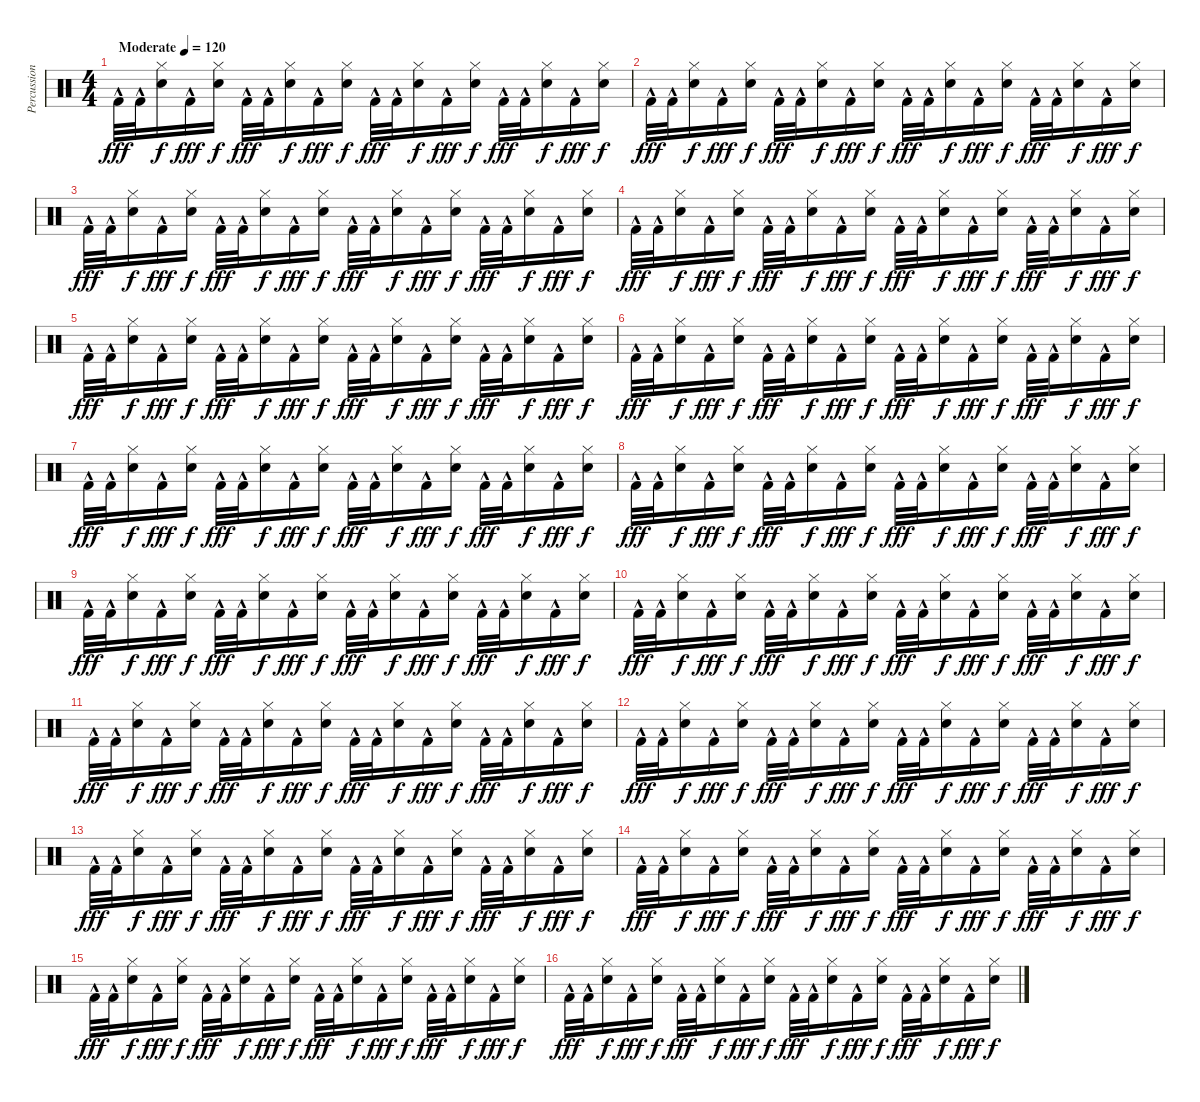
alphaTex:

\track ("Percussion" "Percussion") {instrument percussion}
\staff {score}
\articulation defaults
\ts (4 4)
\tempo (120 "Moderate")
\clef neutral
\ks c "Kick (hit) 2"{hac}.32{dy fff} "Kick (hit) 2"{hac}.32
("Hi-Hat (closed)" "Snare (hit) 2").16{dy f} "Kick (hit) 2"{hac}.16{dy fff} ("Hi-Hat (closed)" "Snare (hit) 2").16{dy f} "Kick (hit) 2"{hac}.32{dy fff} "Kick (hit) 2"{hac}.32 ("Hi-Hat (closed)" "Snare (hit) 2").16{dy f} "Kick (hit) 2"{hac}.16{dy fff} ("Hi-Hat (closed)" "Snare (hit) 2").16{dy f} "Kick (hit) 2"{hac}.32{dy fff} "Kick (hit) 2"{hac}.32 ("Hi-Hat (closed)" "Snare (hit) 2").16{dy f} "Kick (hit) 2"{hac}.16{dy fff} ("Hi-Hat (closed)" "Snare (hit) 2").16{dy f} "Kick (hit) 2"{hac}.32{dy fff} "Kick (hit) 2"{hac}.32 ("Hi-Hat (closed)" "Snare (hit) 2").16{dy f} "Kick (hit) 2"{hac}.16{dy fff} ("Hi-Hat (closed)" "Snare (hit) 2").16{dy f} |
"Kick (hit) 2"{hac}.32{dy fff} "Kick (hit) 2"{hac}.32 ("Hi-Hat (closed)" "Snare (hit) 2").16{dy f} "Kick (hit) 2"{hac}.16{dy fff} ("Hi-Hat (closed)" "Snare (hit) 2").16{dy f} "Kick (hit) 2"{hac}.32{dy fff} "Kick (hit) 2"{hac}.32 ("Hi-Hat (closed)" "Snare (hit) 2").16{dy f} "Kick (hit) 2"{hac}.16{dy fff} ("Hi-Hat (closed)" "Snare (hit) 2").16{dy f} "Kick (hit) 2"{hac}.32{dy fff} "Kick (hit) 2"{hac}.32 ("Hi-Hat (closed)" "Snare (hit) 2").16{dy f} "Kick (hit) 2"{hac}.16{dy fff} ("Hi-Hat (closed)" "Snare (hit) 2").16{dy f} "Kick (hit) 2"{hac}.32{dy fff} "Kick (hit) 2"{hac}.32 ("Hi-Hat (closed)" "Snare (hit) 2").16{dy f} "Kick (hit) 2"{hac}.16{dy fff} ("Hi-Hat (closed)" "Snare (hit) 2").16{dy f} |
"Kick (hit) 2"{hac}.32{dy fff} "Kick (hit) 2"{hac}.32 ("Hi-Hat (closed)" "Snare (hit) 2").16{dy f} "Kick (hit) 2"{hac}.16{dy fff} ("Hi-Hat (closed)" "Snare (hit) 2").16{dy f} "Kick (hit) 2"{hac}.32{dy fff} "Kick (hit) 2"{hac}.32 ("Hi-Hat (closed)" "Snare (hit) 2").16{dy f} "Kick (hit) 2"{hac}.16{dy fff} ("Hi-Hat (closed)" "Snare (hit) 2").16{dy f} "Kick (hit) 2"{hac}.32{dy fff} "Kick (hit) 2"{hac}.32 ("Hi-Hat (closed)" "Snare (hit) 2").16{dy f} "Kick (hit) 2"{hac}.16{dy fff} ("Hi-Hat (closed)" "Snare (hit) 2").16{dy f} "Kick (hit) 2"{hac}.32{dy fff} "Kick (hit) 2"{hac}.32 ("Hi-Hat (closed)" "Snare (hit) 2").16{dy f} "Kick (hit) 2"{hac}.16{dy fff} ("Hi-Hat (closed)" "Snare (hit) 2").16{dy f} |
"Kick (hit) 2"{hac}.32{dy fff} "Kick (hit) 2"{hac}.32 ("Hi-Hat (closed)" "Snare (hit) 2").16{dy f} "Kick (hit) 2"{hac}.16{dy fff} ("Hi-Hat (closed)" "Snare (hit) 2").16{dy f} "Kick (hit) 2"{hac}.32{dy fff} "Kick (hit) 2"{hac}.32 ("Hi-Hat (closed)" "Snare (hit) 2").16{dy f} "Kick (hit) 2"{hac}.16{dy fff} ("Hi-Hat (closed)" "Snare (hit) 2").16{dy f} "Kick (hit) 2"{hac}.32{dy fff} "Kick (hit) 2"{hac}.32 ("Hi-Hat (closed)" "Snare (hit) 2").16{dy f} "Kick (hit) 2"{hac}.16{dy fff} ("Hi-Hat (closed)" "Snare (hit) 2").16{dy f} "Kick (hit) 2"{hac}.32{dy fff} "Kick (hit) 2"{hac}.32 ("Hi-Hat (closed)" "Snare (hit) 2").16{dy f} "Kick (hit) 2"{hac}.16{dy fff} ("Hi-Hat (closed)" "Snare (hit) 2").16{dy f} |
"Kick (hit) 2"{hac}.32{dy fff} "Kick (hit) 2"{hac}.32 ("Hi-Hat (closed)" "Snare (hit) 2").16{dy f} "Kick (hit) 2"{hac}.16{dy fff} ("Hi-Hat (closed)" "Snare (hit) 2").16{dy f} "Kick (hit) 2"{hac}.32{dy fff} "Kick (hit) 2"{hac}.32 ("Hi-Hat (closed)" "Snare (hit) 2").16{dy f} "Kick (hit) 2"{hac}.16{dy fff} ("Hi-Hat (closed)" "Snare (hit) 2").16{dy f} "Kick (hit) 2"{hac}.32{dy fff} "Kick (hit) 2"{hac}.32 ("Hi-Hat (closed)" "Snare (hit) 2").16{dy f} "Kick (hit) 2"{hac}.16{dy fff} ("Hi-Hat (closed)" "Snare (hit) 2").16{dy f} "Kick (hit) 2"{hac}.32{dy fff} "Kick (hit) 2"{hac}.32 ("Hi-Hat (closed)" "Snare (hit) 2").16{dy f} "Kick (hit) 2"{hac}.16{dy fff} ("Hi-Hat (closed)" "Snare (hit) 2").16{dy f} |
"Kick (hit) 2"{hac}.32{dy fff} "Kick (hit) 2"{hac}.32 ("Hi-Hat (closed)" "Snare (hit) 2").16{dy f} "Kick (hit) 2"{hac}.16{dy fff} ("Hi-Hat (closed)" "Snare (hit) 2").16{dy f} "Kick (hit) 2"{hac}.32{dy fff} "Kick (hit) 2"{hac}.32 ("Hi-Hat (closed)" "Snare (hit) 2").16{dy f} "Kick (hit) 2"{hac}.16{dy fff} ("Hi-Hat (closed)" "Snare (hit) 2").16{dy f} "Kick (hit) 2"{hac}.32{dy fff} "Kick (hit) 2"{hac}.32 ("Hi-Hat (closed)" "Snare (hit) 2").16{dy f} "Kick (hit) 2"{hac}.16{dy fff} ("Hi-Hat (closed)" "Snare (hit) 2").16{dy f} "Kick (hit) 2"{hac}.32{dy fff} "Kick (hit) 2"{hac}.32 ("Hi-Hat (closed)" "Snare (hit) 2").16{dy f} "Kick (hit) 2"{hac}.16{dy fff} ("Hi-Hat (closed)" "Snare (hit) 2").16{dy f} |
"Kick (hit) 2"{hac}.32{dy fff} "Kick (hit) 2"{hac}.32 ("Hi-Hat (closed)" "Snare (hit) 2").16{dy f} "Kick (hit) 2"{hac}.16{dy fff} ("Hi-Hat (closed)" "Snare (hit) 2").16{dy f} "Kick (hit) 2"{hac}.32{dy fff} "Kick (hit) 2"{hac}.32 ("Hi-Hat (closed)" "Snare (hit) 2").16{dy f} "Kick (hit) 2"{hac}.16{dy fff} ("Hi-Hat (closed)" "Snare (hit) 2").16{dy f} "Kick (hit) 2"{hac}.32{dy fff} "Kick (hit) 2"{hac}.32 ("Hi-Hat (closed)" "Snare (hit) 2").16{dy f} "Kick (hit) 2"{hac}.16{dy fff} ("Hi-Hat (closed)" "Snare (hit) 2").16{dy f} "Kick (hit) 2"{hac}.32{dy fff} "Kick (hit) 2"{hac}.32 ("Hi-Hat (closed)" "Snare (hit) 2").16{dy f} "Kick (hit) 2"{hac}.16{dy fff} ("Hi-Hat (closed)" "Snare (hit) 2").16{dy f} |
"Kick (hit) 2"{hac}.32{dy fff} "Kick (hit) 2"{hac}.32 ("Hi-Hat (closed)" "Snare (hit) 2").16{dy f} "Kick (hit) 2"{hac}.16{dy fff} ("Hi-Hat (closed)" "Snare (hit) 2").16{dy f} "Kick (hit) 2"{hac}.32{dy fff} "Kick (hit) 2"{hac}.32 ("Hi-Hat (closed)" "Snare (hit) 2").16{dy f} "Kick (hit) 2"{hac}.16{dy fff} ("Hi-Hat (closed)" "Snare (hit) 2").16{dy f} "Kick (hit) 2"{hac}.32{dy fff} "Kick (hit) 2"{hac}.32 ("Hi-Hat (closed)" "Snare (hit) 2").16{dy f} "Kick (hit) 2"{hac}.16{dy fff} ("Hi-Hat (closed)" "Snare (hit) 2").16{dy f} "Kick (hit) 2"{hac}.32{dy fff} "Kick (hit) 2"{hac}.32 ("Hi-Hat (closed)" "Snare (hit) 2").16{dy f} "Kick (hit) 2"{hac}.16{dy fff} ("Hi-Hat (closed)" "Snare (hit) 2").16{dy f} |
"Kick (hit) 2"{hac}.32{dy fff} "Kick (hit) 2"{hac}.32 ("Hi-Hat (closed)" "Snare (hit) 2").16{dy f} "Kick (hit) 2"{hac}.16{dy fff} ("Hi-Hat (closed)" "Snare (hit) 2").16{dy f} "Kick (hit) 2"{hac}.32{dy fff} "Kick (hit) 2"{hac}.32 ("Hi-Hat (closed)" "Snare (hit) 2").16{dy f} "Kick (hit) 2"{hac}.16{dy fff} ("Hi-Hat (closed)" "Snare (hit) 2").16{dy f} "Kick (hit) 2"{hac}.32{dy fff} "Kick (hit) 2"{hac}.32 ("Hi-Hat (closed)" "Snare (hit) 2").16{dy f} "Kick (hit) 2"{hac}.16{dy fff} ("Hi-Hat (closed)" "Snare (hit) 2").16{dy f} "Kick (hit) 2"{hac}.32{dy fff} "Kick (hit) 2"{hac}.32 ("Hi-Hat (closed)" "Snare (hit) 2").16{dy f} "Kick (hit) 2"{hac}.16{dy fff} ("Hi-Hat (closed)" "Snare (hit) 2").16{dy f} |
"Kick (hit) 2"{hac}.32{dy fff} "Kick (hit) 2"{hac}.32 ("Hi-Hat (closed)" "Snare (hit) 2").16{dy f} "Kick (hit) 2"{hac}.16{dy fff} ("Hi-Hat (closed)" "Snare (hit) 2").16{dy f} "Kick (hit) 2"{hac}.32{dy fff} "Kick (hit) 2"{hac}.32 ("Hi-Hat (closed)" "Snare (hit) 2").16{dy f} "Kick (hit) 2"{hac}.16{dy fff} ("Hi-Hat (closed)" "Snare (hit) 2").16{dy f} "Kick (hit) 2"{hac}.32{dy fff} "Kick (hit) 2"{hac}.32 ("Hi-Hat (closed)" "Snare (hit) 2").16{dy f} "Kick (hit) 2"{hac}.16{dy fff} ("Hi-Hat (closed)" "Snare (hit) 2").16{dy f} "Kick (hit) 2"{hac}.32{dy fff} "Kick (hit) 2"{hac}.32 ("Hi-Hat (closed)" "Snare (hit) 2").16{dy f} "Kick (hit) 2"{hac}.16{dy fff} ("Hi-Hat (closed)" "Snare (hit) 2").16{dy f} |
"Kick (hit) 2"{hac}.32{dy fff} "Kick (hit) 2"{hac}.32 ("Hi-Hat (closed)" "Snare (hit) 2").16{dy f} "Kick (hit) 2"{hac}.16{dy fff} ("Hi-Hat (closed)" "Snare (hit) 2").16{dy f} "Kick (hit) 2"{hac}.32{dy fff} "Kick (hit) 2"{hac}.32 ("Hi-Hat (closed)" "Snare (hit) 2").16{dy f} "Kick (hit) 2"{hac}.16{dy fff} ("Hi-Hat (closed)" "Snare (hit) 2").16{dy f} "Kick (hit) 2"{hac}.32{dy fff} "Kick (hit) 2"{hac}.32 ("Hi-Hat (closed)" "Snare (hit) 2").16{dy f} "Kick (hit) 2"{hac}.16{dy fff} ("Hi-Hat (closed)" "Snare (hit) 2").16{dy f} "Kick (hit) 2"{hac}.32{dy fff} "Kick (hit) 2"{hac}.32 ("Hi-Hat (closed)" "Snare (hit) 2").16{dy f} "Kick (hit) 2"{hac}.16{dy fff} ("Hi-Hat (closed)" "Snare (hit) 2").16{dy f} |
"Kick (hit) 2"{hac}.32{dy fff} "Kick (hit) 2"{hac}.32 ("Hi-Hat (closed)" "Snare (hit) 2").16{dy f} "Kick (hit) 2"{hac}.16{dy fff} ("Hi-Hat (closed)" "Snare (hit) 2").16{dy f} "Kick (hit) 2"{hac}.32{dy fff} "Kick (hit) 2"{hac}.32 ("Hi-Hat (closed)" "Snare (hit) 2").16{dy f} "Kick (hit) 2"{hac}.16{dy fff} ("Hi-Hat (closed)" "Snare (hit) 2").16{dy f} "Kick (hit) 2"{hac}.32{dy fff} "Kick (hit) 2"{hac}.32 ("Hi-Hat (closed)" "Snare (hit) 2").16{dy f} "Kick (hit) 2"{hac}.16{dy fff} ("Hi-Hat (closed)" "Snare (hit) 2").16{dy f} "Kick (hit) 2"{hac}.32{dy fff} "Kick (hit) 2"{hac}.32 ("Hi-Hat (closed)" "Snare (hit) 2").16{dy f} "Kick (hit) 2"{hac}.16{dy fff} ("Hi-Hat (closed)" "Snare (hit) 2").16{dy f} |
"Kick (hit) 2"{hac}.32{dy fff} "Kick (hit) 2"{hac}.32 ("Hi-Hat (closed)" "Snare (hit) 2").16{dy f} "Kick (hit) 2"{hac}.16{dy fff} ("Hi-Hat (closed)" "Snare (hit) 2").16{dy f} "Kick (hit) 2"{hac}.32{dy fff} "Kick (hit) 2"{hac}.32 ("Hi-Hat (closed)" "Snare (hit) 2").16{dy f} "Kick (hit) 2"{hac}.16{dy fff} ("Hi-Hat (closed)" "Snare (hit) 2").16{dy f} "Kick (hit) 2"{hac}.32{dy fff} "Kick (hit) 2"{hac}.32 ("Hi-Hat (closed)" "Snare (hit) 2").16{dy f} "Kick (hit) 2"{hac}.16{dy fff} ("Hi-Hat (closed)" "Snare (hit) 2").16{dy f} "Kick (hit) 2"{hac}.32{dy fff} "Kick (hit) 2"{hac}.32 ("Hi-Hat (closed)" "Snare (hit) 2").16{dy f} "Kick (hit) 2"{hac}.16{dy fff} ("Hi-Hat (closed)" "Snare (hit) 2").16{dy f} |
"Kick (hit) 2"{hac}.32{dy fff} "Kick (hit) 2"{hac}.32 ("Hi-Hat (closed)" "Snare (hit) 2").16{dy f} "Kick (hit) 2"{hac}.16{dy fff} ("Hi-Hat (closed)" "Snare (hit) 2").16{dy f} "Kick (hit) 2"{hac}.32{dy fff} "Kick (hit) 2"{hac}.32 ("Hi-Hat (closed)" "Snare (hit) 2").16{dy f} "Kick (hit) 2"{hac}.16{dy fff} ("Hi-Hat (closed)" "Snare (hit) 2").16{dy f} "Kick (hit) 2"{hac}.32{dy fff} "Kick (hit) 2"{hac}.32 ("Hi-Hat (closed)" "Snare (hit) 2").16{dy f} "Kick (hit) 2"{hac}.16{dy fff} ("Hi-Hat (closed)" "Snare (hit) 2").16{dy f} "Kick (hit) 2"{hac}.32{dy fff} "Kick (hit) 2"{hac}.32 ("Hi-Hat (closed)" "Snare (hit) 2").16{dy f} "Kick (hit) 2"{hac}.16{dy fff} ("Hi-Hat (closed)" "Snare (hit) 2").16{dy f} |
"Kick (hit) 2"{hac}.32{dy fff} "Kick (hit) 2"{hac}.32 ("Hi-Hat (closed)" "Snare (hit) 2").16{dy f} "Kick (hit) 2"{hac}.16{dy fff} ("Hi-Hat (closed)" "Snare (hit) 2").16{dy f} "Kick (hit) 2"{hac}.32{dy fff} "Kick (hit) 2"{hac}.32 ("Hi-Hat (closed)" "Snare (hit) 2").16{dy f} "Kick (hit) 2"{hac}.16{dy fff} ("Hi-Hat (closed)" "Snare (hit) 2").16{dy f} "Kick (hit) 2"{hac}.32{dy fff} "Kick (hit) 2"{hac}.32 ("Hi-Hat (closed)" "Snare (hit) 2").16{dy f} "Kick (hit) 2"{hac}.16{dy fff} ("Hi-Hat (closed)" "Snare (hit) 2").16{dy f} "Kick (hit) 2"{hac}.32{dy fff} "Kick (hit) 2"{hac}.32 ("Hi-Hat (closed)" "Snare (hit) 2").16{dy f} "Kick (hit) 2"{hac}.16{dy fff} ("Hi-Hat (closed)" "Snare (hit) 2").16{dy f} |
"Kick (hit) 2"{hac}.32{dy fff} "Kick (hit) 2"{hac}.32 ("Hi-Hat (closed)" "Snare (hit) 2").16{dy f} "Kick (hit) 2"{hac}.16{dy fff} ("Hi-Hat (closed)" "Snare (hit) 2").16{dy f} "Kick (hit) 2"{hac}.32{dy fff} "Kick (hit) 2"{hac}.32 ("Hi-Hat (closed)" "Snare (hit) 2").16{dy f} "Kick (hit) 2"{hac}.16{dy fff} ("Hi-Hat (closed)" "Snare (hit) 2").16{dy f} "Kick (hit) 2"{hac}.32{dy fff} "Kick (hit) 2"{hac}.32 ("Hi-Hat (closed)" "Snare (hit) 2").16{dy f} "Kick (hit) 2"{hac}.16{dy fff} ("Hi-Hat (closed)" "Snare (hit) 2").16{dy f} "Kick (hit) 2"{hac}.32{dy fff} "Kick (hit) 2"{hac}.32 ("Hi-Hat (closed)" "Snare (hit) 2").16{dy f} "Kick (hit) 2"{hac}.16{dy fff} ("Hi-Hat (closed)" "Snare (hit) 2").16{dy f}
